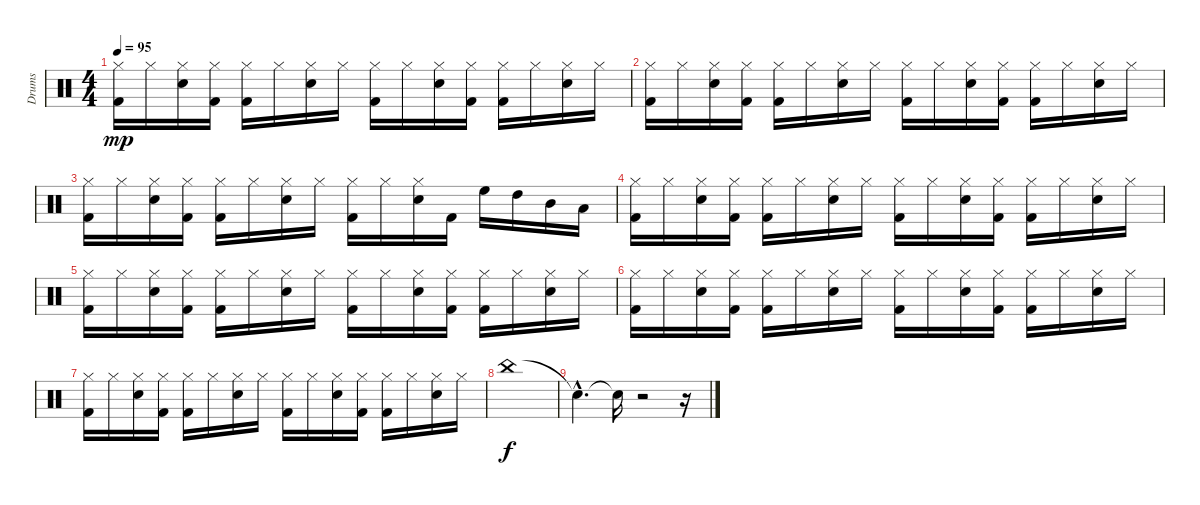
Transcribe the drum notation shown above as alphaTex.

\track ("Drums" "Drums") {instrument percussion}
\staff {score}
\articulation defaults
\ts (4 4)
\tempo 95
\clef neutral
\ks c
("Kick (hit) 2" "Hi-Hat (closed)").16{dy mp} "Hi-Hat (closed)".16 ("Snare (hit) 2" "Hi-Hat (closed)").16 ("Kick (hit) 2" "Hi-Hat (closed)").16 ("Kick (hit) 2" "Hi-Hat (closed)").16 "Hi-Hat (closed)".16 ("Snare (hit) 2" "Hi-Hat (closed)").16 "Hi-Hat (closed)".16 ("Kick (hit) 2" "Hi-Hat (closed)").16 "Hi-Hat (closed)".16 ("Snare (hit) 2" "Hi-Hat (closed)").16 ("Kick (hit) 2" "Hi-Hat (closed)").16 ("Kick (hit) 2" "Hi-Hat (closed)").16 "Hi-Hat (closed)".16 ("Snare (hit) 2" "Hi-Hat (closed)").16 "Hi-Hat (closed)".16 |
("Kick (hit) 2" "Hi-Hat (closed)").16 "Hi-Hat (closed)".16 ("Snare (hit) 2" "Hi-Hat (closed)").16 ("Kick (hit) 2" "Hi-Hat (closed)").16 ("Kick (hit) 2" "Hi-Hat (closed)").16 "Hi-Hat (closed)".16 ("Snare (hit) 2" "Hi-Hat (closed)").16 "Hi-Hat (closed)".16 ("Kick (hit) 2" "Hi-Hat (closed)").16 "Hi-Hat (closed)".16 ("Snare (hit) 2" "Hi-Hat (closed)").16 ("Kick (hit) 2" "Hi-Hat (closed)").16 ("Kick (hit) 2" "Hi-Hat (closed)").16 "Hi-Hat (closed)".16 ("Snare (hit) 2" "Hi-Hat (closed)").16 "Hi-Hat (closed)".16 |
("Kick (hit) 2" "Hi-Hat (closed)").16 "Hi-Hat (closed)".16 ("Snare (hit) 2" "Hi-Hat (closed)").16 ("Kick (hit) 2" "Hi-Hat (closed)").16 ("Kick (hit) 2" "Hi-Hat (closed)").16 "Hi-Hat (closed)".16 ("Snare (hit) 2" "Hi-Hat (closed)").16 "Hi-Hat (closed)".16 ("Kick (hit) 2" "Hi-Hat (closed)").16 "Hi-Hat (closed)".16 ("Snare (hit) 2" "Hi-Hat (closed)").16 "Kick (hit) 2".16 "High Floor Tom (hit)".16 "High Tom (hit)".16 "Mid Tom (hit)".16 "Low Tom (hit)".16 |
("Kick (hit) 2" "Hi-Hat (closed)").16 "Hi-Hat (closed)".16 ("Snare (hit) 2" "Hi-Hat (closed)").16 ("Kick (hit) 2" "Hi-Hat (closed)").16 ("Kick (hit) 2" "Hi-Hat (closed)").16 "Hi-Hat (closed)".16 ("Snare (hit) 2" "Hi-Hat (closed)").16 "Hi-Hat (closed)".16 ("Kick (hit) 2" "Hi-Hat (closed)").16 "Hi-Hat (closed)".16 ("Snare (hit) 2" "Hi-Hat (closed)").16 ("Kick (hit) 2" "Hi-Hat (closed)").16 ("Kick (hit) 2" "Hi-Hat (closed)").16 "Hi-Hat (closed)".16 ("Snare (hit) 2" "Hi-Hat (closed)").16 "Hi-Hat (closed)".16 |
("Kick (hit) 2" "Hi-Hat (closed)").16 "Hi-Hat (closed)".16 ("Snare (hit) 2" "Hi-Hat (closed)").16 ("Kick (hit) 2" "Hi-Hat (closed)").16 ("Kick (hit) 2" "Hi-Hat (closed)").16 "Hi-Hat (closed)".16 ("Snare (hit) 2" "Hi-Hat (closed)").16 "Hi-Hat (closed)".16 ("Kick (hit) 2" "Hi-Hat (closed)").16 "Hi-Hat (closed)".16 ("Snare (hit) 2" "Hi-Hat (closed)").16 ("Kick (hit) 2" "Hi-Hat (closed)").16 ("Kick (hit) 2" "Hi-Hat (closed)").16 "Hi-Hat (closed)".16 ("Snare (hit) 2" "Hi-Hat (closed)").16 "Hi-Hat (closed)".16 |
("Kick (hit) 2" "Hi-Hat (closed)").16 "Hi-Hat (closed)".16 ("Snare (hit) 2" "Hi-Hat (closed)").16 ("Kick (hit) 2" "Hi-Hat (closed)").16 ("Kick (hit) 2" "Hi-Hat (closed)").16 "Hi-Hat (closed)".16 ("Snare (hit) 2" "Hi-Hat (closed)").16 "Hi-Hat (closed)".16 ("Kick (hit) 2" "Hi-Hat (closed)").16 "Hi-Hat (closed)".16 ("Snare (hit) 2" "Hi-Hat (closed)").16 ("Kick (hit) 2" "Hi-Hat (closed)").16 ("Kick (hit) 2" "Hi-Hat (closed)").16 "Hi-Hat (closed)".16 ("Snare (hit) 2" "Hi-Hat (closed)").16 "Hi-Hat (closed)".16 |
("Kick (hit) 2" "Hi-Hat (closed)").16 "Hi-Hat (closed)".16 ("Snare (hit) 2" "Hi-Hat (closed)").16 ("Kick (hit) 2" "Hi-Hat (closed)").16 ("Kick (hit) 2" "Hi-Hat (closed)").16 "Hi-Hat (closed)".16 ("Snare (hit) 2" "Hi-Hat (closed)").16 "Hi-Hat (closed)".16 ("Kick (hit) 2" "Hi-Hat (closed)").16 "Hi-Hat (closed)".16 ("Snare (hit) 2" "Hi-Hat (closed)").16 ("Kick (hit) 2" "Hi-Hat (closed)").16 ("Kick (hit) 2" "Hi-Hat (closed)").16 "Hi-Hat (closed)".16 ("Snare (hit) 2" "Hi-Hat (closed)").16 "Hi-Hat (closed)".16 |
"China (hit)".1{dy f} |
"Snare (hit)"{hac t}.4{d} "Snare (hit)"{t}.16 r.2 r.16
